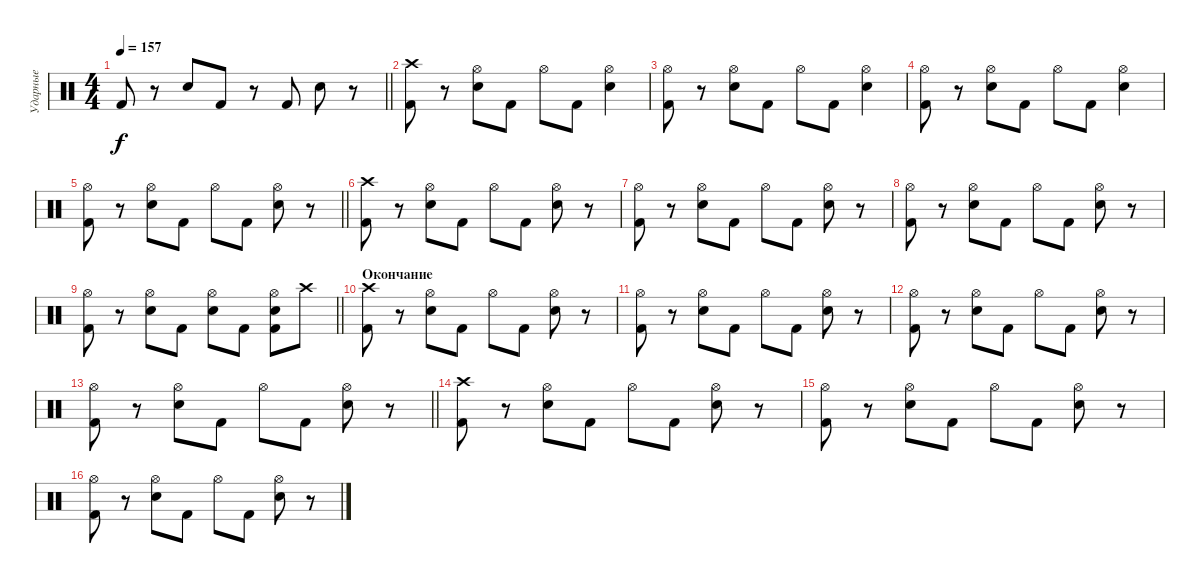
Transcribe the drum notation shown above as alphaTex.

\track ("Ударные" "Ударные") {instrument percussion}
\staff {score}
\articulation defaults
\ts (4 4)
\tempo 157
\clef neutral
\barLineRight lightlight
\ks c "Kick (hit) 2".8{dy f}
r.8 "Snare (hit) 2".8 "Kick (hit) 2".8 r.8 "Kick (hit) 2".8 "Snare (hit) 2".8 r.8 |
("Crash high (hit)" "Kick (hit) 2").8 r.8 ("Hi-Hat (open)" "Snare (hit) 2").8 "Kick (hit) 2".8 "Hi-Hat (open)".8 "Kick (hit) 2".8 ("Hi-Hat (open)" "Snare (hit) 2").4 |
("Hi-Hat (open)" "Kick (hit) 2").8 r.8 ("Hi-Hat (open)" "Snare (hit) 2").8 "Kick (hit) 2".8 "Hi-Hat (open)".8 "Kick (hit) 2".8 ("Hi-Hat (open)" "Snare (hit) 2").4 |
("Hi-Hat (open)" "Kick (hit) 2").8 r.8 ("Hi-Hat (open)" "Snare (hit) 2").8 "Kick (hit) 2".8 "Hi-Hat (open)".8 "Kick (hit) 2".8 ("Hi-Hat (open)" "Snare (hit) 2").4 |
\barLineRight lightlight
("Hi-Hat (open)" "Kick (hit) 2").8 r.8 ("Hi-Hat (open)" "Snare (hit) 2").8 "Kick (hit) 2".8 "Hi-Hat (open)".8 "Kick (hit) 2".8 ("Hi-Hat (open)" "Snare (hit) 2").8 r.8 |
("Crash high (hit)" "Kick (hit) 2").8 r.8 ("Hi-Hat (open)" "Snare (hit) 2").8 "Kick (hit) 2".8 "Hi-Hat (open)".8 "Kick (hit) 2".8 ("Hi-Hat (open)" "Snare (hit) 2").8 r.8 |
("Hi-Hat (open)" "Kick (hit) 2").8 r.8 ("Hi-Hat (open)" "Snare (hit) 2").8 "Kick (hit) 2".8 "Hi-Hat (open)".8 "Kick (hit) 2".8 ("Hi-Hat (open)" "Snare (hit) 2").8 r.8 |
("Hi-Hat (open)" "Kick (hit) 2").8 r.8 ("Hi-Hat (open)" "Snare (hit) 2").8 "Kick (hit) 2".8 "Hi-Hat (open)".8 "Kick (hit) 2".8 ("Hi-Hat (open)" "Snare (hit) 2").8 r.8 |
\barLineRight lightlight
("Hi-Hat (open)" "Kick (hit) 2").8 r.8 ("Hi-Hat (open)" "Snare (hit) 2").8 "Kick (hit) 2".8 ("Hi-Hat (open)" "Snare (hit) 2").8 "Kick (hit) 2".8 ("Hi-Hat (open)" "Snare (hit) 2" "Kick (hit) 2").8 "Crash high (hit)".8 |
\section ("" "Окончание")
("Crash high (hit)" "Kick (hit) 2").8 r.8 ("Hi-Hat (open)" "Snare (hit) 2").8 "Kick (hit) 2".8 "Hi-Hat (open)".8 "Kick (hit) 2".8 ("Hi-Hat (open)" "Snare (hit) 2").8 r.8 |
("Hi-Hat (open)" "Kick (hit) 2").8 r.8 ("Hi-Hat (open)" "Snare (hit) 2").8 "Kick (hit) 2".8 "Hi-Hat (open)".8 "Kick (hit) 2".8 ("Hi-Hat (open)" "Snare (hit) 2").8 r.8 |
("Hi-Hat (open)" "Kick (hit) 2").8 r.8 ("Hi-Hat (open)" "Snare (hit) 2").8 "Kick (hit) 2".8 "Hi-Hat (open)".8 "Kick (hit) 2".8 ("Hi-Hat (open)" "Snare (hit) 2").8 r.8 |
\barLineRight lightlight
("Hi-Hat (open)" "Kick (hit) 2").8 r.8 ("Hi-Hat (open)" "Snare (hit) 2").8 "Kick (hit) 2".8 "Hi-Hat (open)".8 "Kick (hit) 2".8 ("Hi-Hat (open)" "Snare (hit) 2").8 r.8 |
("Crash high (hit)" "Kick (hit) 2").8 r.8 ("Hi-Hat (open)" "Snare (hit) 2").8 "Kick (hit) 2".8 "Hi-Hat (open)".8 "Kick (hit) 2".8 ("Hi-Hat (open)" "Snare (hit) 2").8 r.8 |
("Hi-Hat (open)" "Kick (hit) 2").8 r.8 ("Hi-Hat (open)" "Snare (hit) 2").8 "Kick (hit) 2".8 "Hi-Hat (open)".8 "Kick (hit) 2".8 ("Hi-Hat (open)" "Snare (hit) 2").8 r.8 |
("Hi-Hat (open)" "Kick (hit) 2").8 r.8 ("Hi-Hat (open)" "Snare (hit) 2").8 "Kick (hit) 2".8 "Hi-Hat (open)".8 "Kick (hit) 2".8 ("Hi-Hat (open)" "Snare (hit) 2").8 r.8
